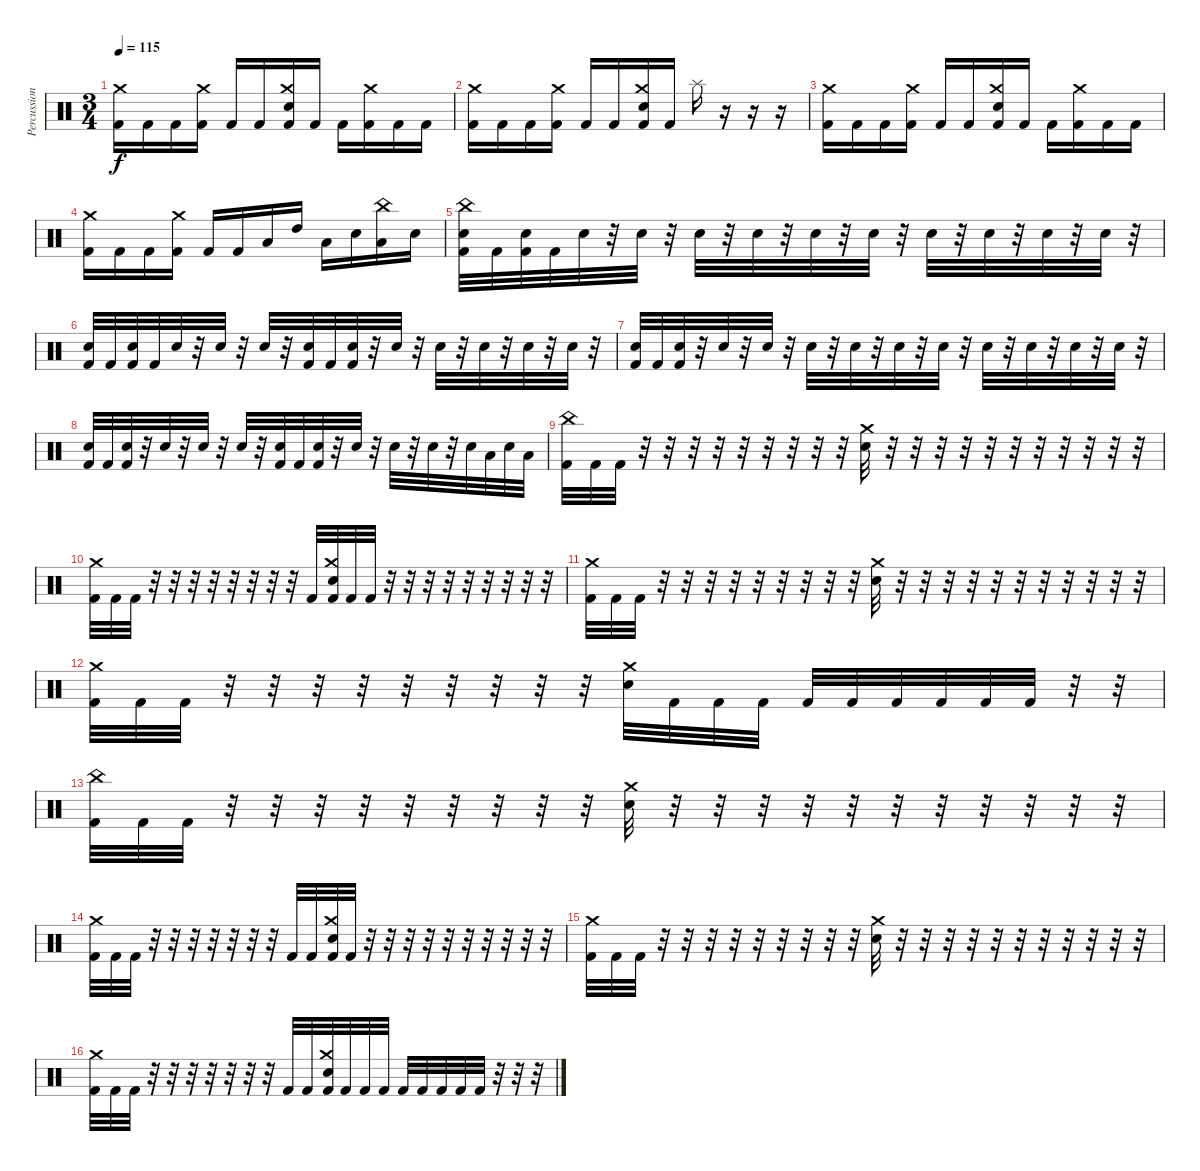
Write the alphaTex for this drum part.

\track ("Percussion" "Percussion") {instrument percussion}
\staff {score}
\articulation defaults
\ts (3 4)
\tempo 115
\clef neutral
\ks c
("Kick (hit) 2" "Crash medium (hit)").16{dy f} "Kick (hit) 2".16 "Kick (hit) 2".16 ("Kick (hit) 2" "Crash medium (hit)").16 "Kick (hit) 2".16 "Kick (hit) 2".16 ("Kick (hit) 2" "Electric Snare (hit)" "Crash medium (hit)").16 "Kick (hit) 2".16 "Kick (hit) 2".16 ("Kick (hit) 2" "Crash medium (hit)").16 "Kick (hit) 2".16 "Kick (hit) 2".16 |
("Kick (hit) 2" "Crash medium (hit)").16 "Kick (hit) 2".16 "Kick (hit) 2".16 ("Kick (hit) 2" "Crash medium (hit)").16 "Kick (hit) 2".16 "Kick (hit) 2".16 ("Kick (hit) 2" "Electric Snare (hit)" "Crash medium (hit)").16 "Kick (hit) 2".16 "Splash (hit)".16 r.16 r.16 r.16 |
("Kick (hit) 2" "Crash medium (hit)").16 "Kick (hit) 2".16 "Kick (hit) 2".16 ("Kick (hit) 2" "Crash medium (hit)").16 "Kick (hit) 2".16 "Kick (hit) 2".16 ("Kick (hit) 2" "Electric Snare (hit)" "Crash medium (hit)").16 "Kick (hit) 2".16 "Kick (hit) 2".16 ("Kick (hit) 2" "Crash medium (hit)").16 "Kick (hit) 2".16 "Kick (hit) 2".16 |
("Kick (hit) 2" "Crash medium (hit)").16 "Kick (hit) 2".16 "Kick (hit) 2".16 ("Kick (hit) 2" "Crash medium (hit)").16 "Kick (hit) 2".16 "Kick (hit) 2".16 "Low Tom (hit)".16 "High Tom (hit)".16 "Low Tom (hit)".16 "Electric Snare (hit)".16 ("Low Tom (hit)" "China (hit)").16 "Electric Snare (hit)".16 |
("Kick (hit) 2" "Electric Snare (hit)" "China (hit)").32 "Kick (hit) 2".32 ("Kick (hit) 2" "Electric Snare (hit)").32 "Kick (hit) 2".32 "Electric Snare (hit)".32 r.32 "Electric Snare (hit)".32 r.32 "Electric Snare (hit)".32 r.32 "Electric Snare (hit)".32 r.32 "Electric Snare (hit)".32 r.32 "Electric Snare (hit)".32 r.32 "Electric Snare (hit)".32 r.32 "Electric Snare (hit)".32 r.32 "Electric Snare (hit)".32 r.32 "Electric Snare (hit)".32 r.32 |
("Kick (hit) 2" "Electric Snare (hit)").32 "Kick (hit) 2".32 ("Kick (hit) 2" "Electric Snare (hit)").32 "Kick (hit) 2".32 "Electric Snare (hit)".32 r.32 "Electric Snare (hit)".32 r.32 "Electric Snare (hit)".32 r.32 ("Kick (hit) 2" "Electric Snare (hit)").32 "Kick (hit) 2".32 ("Kick (hit) 2" "Electric Snare (hit)").32 r.32 "Electric Snare (hit)".32 r.32 "Electric Snare (hit)".32 r.32 "Electric Snare (hit)".32 r.32 "Electric Snare (hit)".32 r.32 "Electric Snare (hit)".32 r.32 |
("Kick (hit) 2" "Electric Snare (hit)").32 "Kick (hit) 2".32 ("Kick (hit) 2" "Electric Snare (hit)").32 r.32 "Electric Snare (hit)".32 r.32 "Electric Snare (hit)".32 r.32 "Electric Snare (hit)".32 r.32 "Electric Snare (hit)".32 r.32 "Electric Snare (hit)".32 r.32 "Electric Snare (hit)".32 r.32 "Electric Snare (hit)".32 r.32 "Electric Snare (hit)".32 r.32 "Electric Snare (hit)".32 r.32 "Electric Snare (hit)".32 r.32 |
("Kick (hit) 2" "Electric Snare (hit)").32 "Kick (hit) 2".32 ("Kick (hit) 2" "Electric Snare (hit)").32 r.32 "Electric Snare (hit)".32 r.32 "Electric Snare (hit)".32 r.32 "Electric Snare (hit)".32 r.32 ("Kick (hit) 2" "Electric Snare (hit)").32 "Kick (hit) 2".32 ("Kick (hit) 2" "Electric Snare (hit)").32 r.32 "Electric Snare (hit)".32 r.32 "Electric Snare (hit)".32 r.32 "Electric Snare (hit)".32 r.32 "Electric Snare (hit)".32 "Low Floor Tom (hit)".32 "Electric Snare (hit)".32 "Low Floor Tom (hit)".32 |
("China (hit)" "Kick (hit) 2").32 "Kick (hit) 2".32 "Kick (hit) 2".32 r.32 r.32 r.32 r.32 r.32 r.32 r.32 r.32 r.32 ("Crash medium (hit)" "Electric Snare (hit)").32 r.32 r.32 r.32 r.32 r.32 r.32 r.32 r.32 r.32 r.32 r.32 |
("Crash medium (hit)" "Kick (hit) 2").32 "Kick (hit) 2".32 "Kick (hit) 2".32 r.32 r.32 r.32 r.32 r.32 r.32 r.32 r.32 "Kick (hit) 2".32 ("Crash medium (hit)" "Electric Snare (hit)" "Kick (hit) 2").32 "Kick (hit) 2".32 "Kick (hit) 2".32 r.32 r.32 r.32 r.32 r.32 r.32 r.32 r.32 r.32 |
("Crash medium (hit)" "Kick (hit) 2").32 "Kick (hit) 2".32 "Kick (hit) 2".32 r.32 r.32 r.32 r.32 r.32 r.32 r.32 r.32 r.32 ("Crash medium (hit)" "Electric Snare (hit)").32 r.32 r.32 r.32 r.32 r.32 r.32 r.32 r.32 r.32 r.32 r.32 |
("Crash medium (hit)" "Kick (hit) 2").32 "Kick (hit) 2".32 "Kick (hit) 2".32 r.32 r.32 r.32 r.32 r.32 r.32 r.32 r.32 r.32 ("Crash medium (hit)" "Electric Snare (hit)").32 "Kick (hit) 2".32 "Kick (hit) 2".32 "Kick (hit) 2".32 "Kick (hit) 2".32 "Kick (hit) 2".32 "Kick (hit) 2".32 "Kick (hit) 2".32 "Kick (hit) 2".32 "Kick (hit) 2".32 r.32 r.32 |
("China (hit)" "Kick (hit) 2").32 "Kick (hit) 2".32 "Kick (hit) 2".32 r.32 r.32 r.32 r.32 r.32 r.32 r.32 r.32 r.32 ("Crash medium (hit)" "Electric Snare (hit)").32 r.32 r.32 r.32 r.32 r.32 r.32 r.32 r.32 r.32 r.32 r.32 |
("Crash medium (hit)" "Kick (hit) 2").32 "Kick (hit) 2".32 "Kick (hit) 2".32 r.32 r.32 r.32 r.32 r.32 r.32 r.32 "Kick (hit) 2".32 "Kick (hit) 2".32 ("Crash medium (hit)" "Electric Snare (hit)" "Kick (hit) 2").32 "Kick (hit) 2".32 r.32 r.32 r.32 r.32 r.32 r.32 r.32 r.32 r.32 r.32 |
("Crash medium (hit)" "Kick (hit) 2").32 "Kick (hit) 2".32 "Kick (hit) 2".32 r.32 r.32 r.32 r.32 r.32 r.32 r.32 r.32 r.32 ("Crash medium (hit)" "Electric Snare (hit)").32 r.32 r.32 r.32 r.32 r.32 r.32 r.32 r.32 r.32 r.32 r.32 |
("Crash medium (hit)" "Kick (hit) 2").32 "Kick (hit) 2".32 "Kick (hit) 2".32 r.32 r.32 r.32 r.32 r.32 r.32 r.32 "Kick (hit) 2".32 "Kick (hit) 2".32 ("Crash medium (hit)" "Electric Snare (hit)" "Kick (hit) 2").32 "Kick (hit) 2".32 "Kick (hit) 2".32 "Kick (hit) 2".32 "Kick (hit) 2".32 "Kick (hit) 2".32 "Kick (hit) 2".32 "Kick (hit) 2".32 "Kick (hit) 2".32 r.32 r.32 r.32
